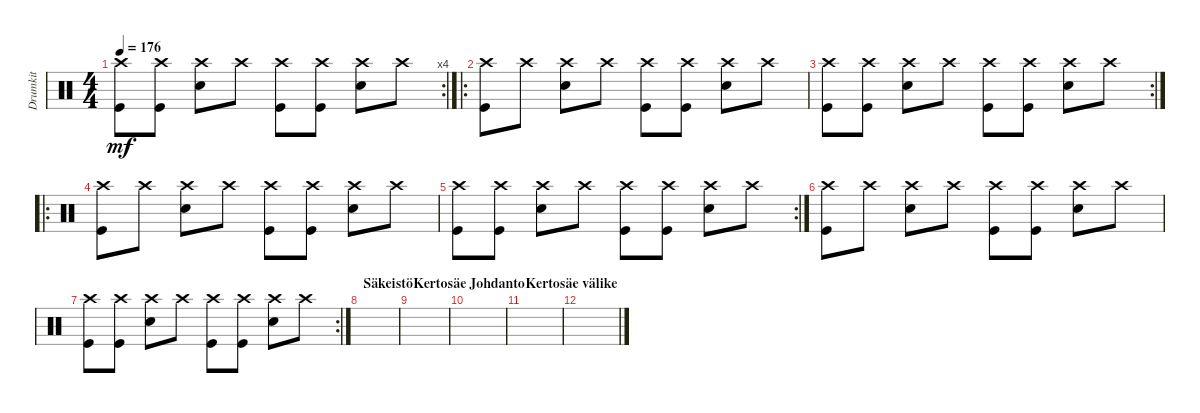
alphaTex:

\track ("Drumkit" "Drumkit") {instrument percussion}
\staff {score}
\articulation defaults
\rc 4
\ts (4 4)
\tempo 176
\clef neutral
\ks c
("Kick (hit)" "Crash high (hit)").8{dy mf} ("Kick (hit)" "Crash high (hit)").8 ("Snare (hit) 2" "Crash high (hit)").8 "Crash high (hit)".8 ("Kick (hit)" "Crash high (hit)").8 ("Kick (hit)" "Crash high (hit)").8 ("Snare (hit) 2" "Crash high (hit)").8 "Crash high (hit)".8 |
\ro
("Kick (hit)" "Crash high (hit)").8 "Crash high (hit)".8 ("Snare (hit) 2" "Crash high (hit)").8 "Crash high (hit)".8 ("Kick (hit)" "Crash high (hit)").8 ("Kick (hit)" "Crash high (hit)").8 ("Snare (hit) 2" "Crash high (hit)").8 "Crash high (hit)".8 |
\rc 2
("Kick (hit)" "Crash high (hit)").8 ("Kick (hit)" "Crash high (hit)").8 ("Snare (hit) 2" "Crash high (hit)").8 "Crash high (hit)".8 ("Kick (hit)" "Crash high (hit)").8 ("Kick (hit)" "Crash high (hit)").8 ("Snare (hit) 2" "Crash high (hit)").8 "Crash high (hit)".8 |
\ro
("Kick (hit)" "Crash high (hit)").8 "Crash high (hit)".8 ("Snare (hit) 2" "Crash high (hit)").8 "Crash high (hit)".8 ("Kick (hit)" "Crash high (hit)").8 ("Kick (hit)" "Crash high (hit)").8 ("Snare (hit) 2" "Crash high (hit)").8 "Crash high (hit)".8 |
\rc 2
("Kick (hit)" "Crash high (hit)").8 ("Kick (hit)" "Crash high (hit)").8 ("Snare (hit) 2" "Crash high (hit)").8 "Crash high (hit)".8 ("Kick (hit)" "Crash high (hit)").8 ("Kick (hit)" "Crash high (hit)").8 ("Snare (hit) 2" "Crash high (hit)").8 "Crash high (hit)".8 |
("Kick (hit)" "Crash high (hit)").8 "Crash high (hit)".8 ("Snare (hit) 2" "Crash high (hit)").8 "Crash high (hit)".8 ("Kick (hit)" "Crash high (hit)").8 ("Kick (hit)" "Crash high (hit)").8 ("Snare (hit) 2" "Crash high (hit)").8 "Crash high (hit)".8 |
\rc 2
("Kick (hit)" "Crash high (hit)").8 ("Kick (hit)" "Crash high (hit)").8 ("Snare (hit) 2" "Crash high (hit)").8 "Crash high (hit)".8 ("Kick (hit)" "Crash high (hit)").8 ("Kick (hit)" "Crash high (hit)").8 ("Snare (hit) 2" "Crash high (hit)").8 "Crash high (hit)".8 |
\section ("" "Säkeistö")
|
\section ("" "Kertosäe")
|
\section ("" "Johdanto")
|
\section ("" "Kertosäe")
|
\section ("" "välike")
